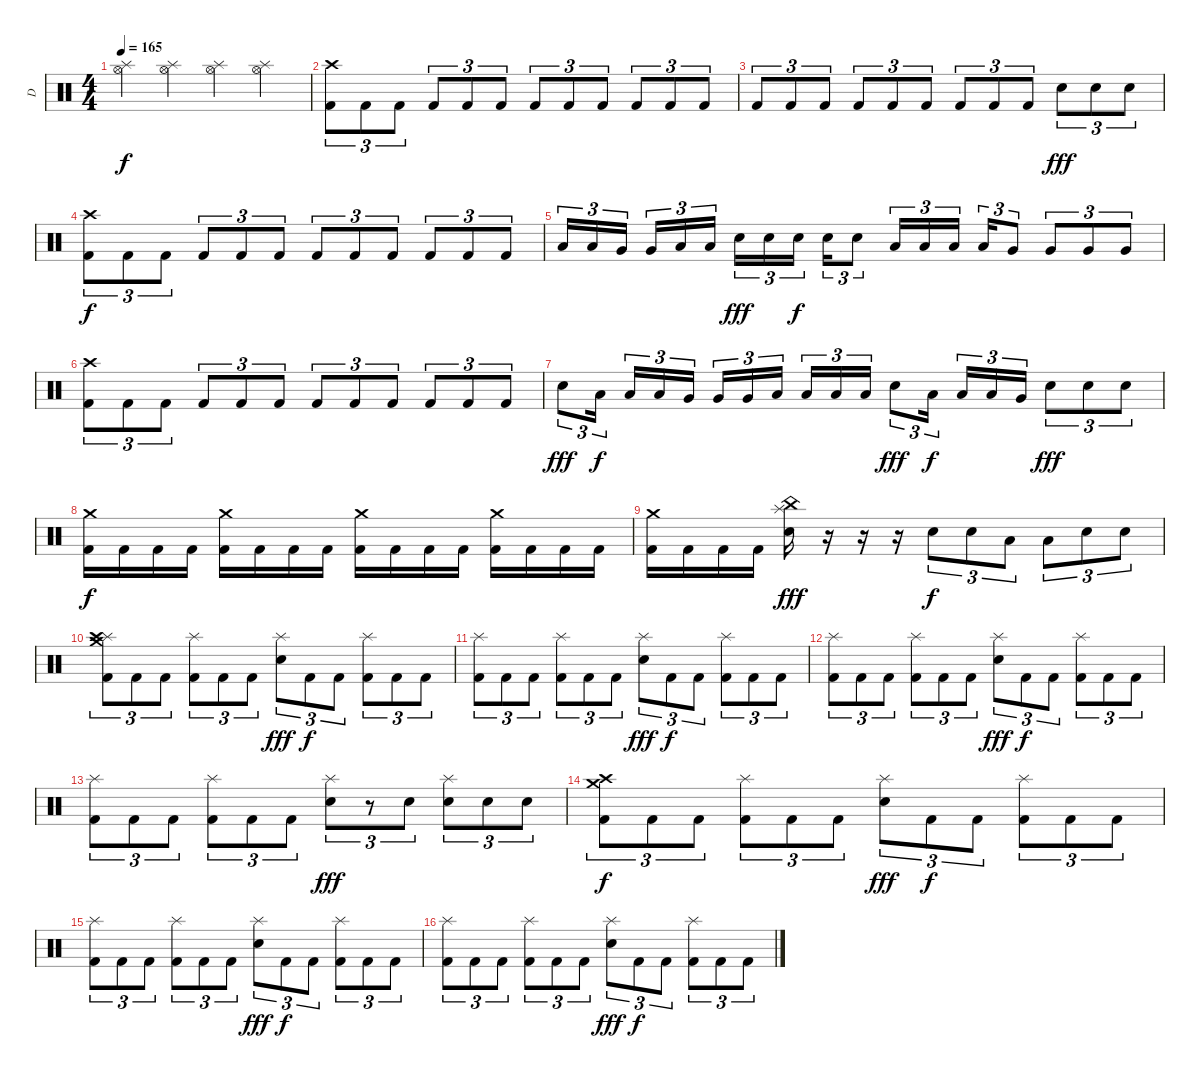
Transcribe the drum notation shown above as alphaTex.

\track ("D" "D") {instrument percussion}
\staff {score}
\articulation defaults
\ts (4 4)
\tempo 165
\clef neutral
\ks c
("Hi-Hat (open)" "Splash (hit)").4{dy f} ("Hi-Hat (open)" "Splash (hit)").4 ("Hi-Hat (open)" "Splash (hit)").4 ("Hi-Hat (open)" "Splash (hit)").4 |
("Crash high (hit)" "Kick (hit) 2").8{tu (3 2)} "Kick (hit) 2".8{tu (3 2)} "Kick (hit) 2".8{tu (3 2)} "Kick (hit) 2".8{tu (3 2)} "Kick (hit) 2".8{tu (3 2)} "Kick (hit) 2".8{tu (3 2)} "Kick (hit) 2".8{tu (3 2)} "Kick (hit) 2".8{tu (3 2)} "Kick (hit) 2".8{tu (3 2)} "Kick (hit) 2".8{tu (3 2)} "Kick (hit) 2".8{tu (3 2)} "Kick (hit) 2".8{tu (3 2)} |
"Kick (hit) 2".8{tu (3 2)} "Kick (hit) 2".8{tu (3 2)} "Kick (hit) 2".8{tu (3 2)} "Kick (hit) 2".8{tu (3 2)} "Kick (hit) 2".8{tu (3 2)} "Kick (hit) 2".8{tu (3 2)} "Kick (hit) 2".8{tu (3 2)} "Kick (hit) 2".8{tu (3 2)} "Kick (hit) 2".8{tu (3 2)} "Electric Snare (hit)".8{tu (3 2) dy fff} "Electric Snare (hit)".8{tu (3 2)} "Electric Snare (hit)".8{tu (3 2)} |
("Crash high (hit)" "Kick (hit) 2").8{tu (3 2) dy f} "Kick (hit) 2".8{tu (3 2)} "Kick (hit) 2".8{tu (3 2)} "Kick (hit) 2".8{tu (3 2)} "Kick (hit) 2".8{tu (3 2)} "Kick (hit) 2".8{tu (3 2)} "Kick (hit) 2".8{tu (3 2)} "Kick (hit) 2".8{tu (3 2)} "Kick (hit) 2".8{tu (3 2)} "Kick (hit) 2".8{tu (3 2)} "Kick (hit) 2".8{tu (3 2)} "Kick (hit) 2".8{tu (3 2)} |
"Low Tom (hit)".16{tu (3 2)} "Low Tom (hit)".16{tu (3 2)} "Very Low Tom (hit)".16{tu (3 2)} "Very Low Tom (hit)".16{tu (3 2)} "Low Floor Tom (hit)".16{tu (3 2)} "Low Floor Tom (hit)".16{tu (3 2)} "Electric Snare (hit)".16{tu (3 2) dy fff} "Electric Snare (hit)".16{tu (3 2)} "Electric Snare (hit)".16{tu (3 2) dy f} "Electric Snare (hit)".16{tu (3 2)} "Electric Snare (hit)".8{tu (3 2)} "Low Tom (hit)".16{tu (3 2)} "Low Tom (hit)".16{tu (3 2)} "Low Tom (hit)".16{tu (3 2)} "Low Tom (hit)".16{tu (3 2)} "Very Low Tom (hit)".8{tu (3 2)} "Very Low Tom (hit)".8{tu (3 2)} "Very Low Tom (hit)".8{tu (3 2)} "Very Low Tom (hit)".8{tu (3 2)} |
("Crash high (hit)" "Kick (hit) 2").8{tu (3 2)} "Kick (hit) 2".8{tu (3 2)} "Kick (hit) 2".8{tu (3 2)} "Kick (hit) 2".8{tu (3 2)} "Kick (hit) 2".8{tu (3 2)} "Kick (hit) 2".8{tu (3 2)} "Kick (hit) 2".8{tu (3 2)} "Kick (hit) 2".8{tu (3 2)} "Kick (hit) 2".8{tu (3 2)} "Kick (hit) 2".8{tu (3 2)} "Kick (hit) 2".8{tu (3 2)} "Kick (hit) 2".8{tu (3 2)} |
"Electric Snare (hit)".8{tu (3 2) dy fff} "Low Tom (hit)".16{tu (3 2) dy f} "Low Tom (hit)".16{tu (3 2)} "Low Tom (hit)".16{tu (3 2)} "Very Low Tom (hit)".16{tu (3 2)} "Very Low Tom (hit)".16{tu (3 2)} "Very Low Tom (hit)".16{tu (3 2)} "Low Floor Tom (hit)".16{tu (3 2)} "Low Floor Tom (hit)".16{tu (3 2)} "Low Floor Tom (hit)".16{tu (3 2)} "Low Floor Tom (hit)".16{tu (3 2)} "Electric Snare (hit)".8{tu (3 2) dy fff} "Low Tom (hit)".16{tu (3 2) dy f} "Low Tom (hit)".16{tu (3 2)} "Low Tom (hit)".16{tu (3 2)} "Very Low Tom (hit)".16{tu (3 2)} "Electric Snare (hit)".8{tu (3 2) dy fff} "Electric Snare (hit)".8{tu (3 2)} "Electric Snare (hit)".8{tu (3 2)} |
("Crash medium (hit)" "Kick (hit) 2").16{dy f} "Kick (hit) 2".16 "Kick (hit) 2".16 "Kick (hit) 2".16 ("Crash medium (hit)" "Kick (hit) 2").16 "Kick (hit) 2".16 "Kick (hit) 2".16 "Kick (hit) 2".16 ("Crash medium (hit)" "Kick (hit) 2").16 "Kick (hit) 2".16 "Kick (hit) 2".16 "Kick (hit) 2".16 ("Crash medium (hit)" "Kick (hit) 2").16 "Kick (hit) 2".16 "Kick (hit) 2".16 "Kick (hit) 2".16 |
("Crash medium (hit)" "Kick (hit) 2").16 "Kick (hit) 2".16 "Kick (hit) 2".16 "Kick (hit) 2".16 ("Splash (hit)" "China (hit)" "Electric Snare (hit)").16{dy fff} r.16 r.16 r.16 "Electric Snare (hit)".8{tu (3 2) dy f} "Electric Snare (hit)".8{tu (3 2)} "Low Tom (hit)".8{tu (3 2)} "Low Tom (hit)".8{tu (3 2)} "Electric Snare (hit)".8{tu (3 2)} "Electric Snare (hit)".8{tu (3 2)} |
("Splash (hit)" "Crash medium (hit)" "Crash high (hit)" "Kick (hit) 2").8{tu (3 2)} "Kick (hit) 2".8{tu (3 2)} "Kick (hit) 2".8{tu (3 2)} ("Splash (hit)" "Kick (hit) 2").8{tu (3 2)} "Kick (hit) 2".8{tu (3 2)} "Kick (hit) 2".8{tu (3 2)} ("Splash (hit)" "Electric Snare (hit)").8{tu (3 2) dy fff} "Kick (hit) 2".8{tu (3 2) dy f} "Kick (hit) 2".8{tu (3 2)} ("Splash (hit)" "Kick (hit) 2").8{tu (3 2)} "Kick (hit) 2".8{tu (3 2)} "Kick (hit) 2".8{tu (3 2)} |
("Splash (hit)" "Kick (hit) 2").8{tu (3 2)} "Kick (hit) 2".8{tu (3 2)} "Kick (hit) 2".8{tu (3 2)} ("Splash (hit)" "Kick (hit) 2").8{tu (3 2)} "Kick (hit) 2".8{tu (3 2)} "Kick (hit) 2".8{tu (3 2)} ("Splash (hit)" "Electric Snare (hit)").8{tu (3 2) dy fff} "Kick (hit) 2".8{tu (3 2) dy f} "Kick (hit) 2".8{tu (3 2)} ("Splash (hit)" "Kick (hit) 2").8{tu (3 2)} "Kick (hit) 2".8{tu (3 2)} "Kick (hit) 2".8{tu (3 2)} |
("Splash (hit)" "Kick (hit) 2").8{tu (3 2)} "Kick (hit) 2".8{tu (3 2)} "Kick (hit) 2".8{tu (3 2)} ("Splash (hit)" "Kick (hit) 2").8{tu (3 2)} "Kick (hit) 2".8{tu (3 2)} "Kick (hit) 2".8{tu (3 2)} ("Splash (hit)" "Electric Snare (hit)").8{tu (3 2) dy fff} "Kick (hit) 2".8{tu (3 2) dy f} "Kick (hit) 2".8{tu (3 2)} ("Splash (hit)" "Kick (hit) 2").8{tu (3 2)} "Kick (hit) 2".8{tu (3 2)} "Kick (hit) 2".8{tu (3 2)} |
("Splash (hit)" "Kick (hit) 2").8{tu (3 2)} "Kick (hit) 2".8{tu (3 2)} "Kick (hit) 2".8{tu (3 2)} ("Splash (hit)" "Kick (hit) 2").8{tu (3 2)} "Kick (hit) 2".8{tu (3 2)} "Kick (hit) 2".8{tu (3 2)} ("Splash (hit)" "Electric Snare (hit)").8{tu (3 2) dy fff} r.8{tu (3 2)} "Electric Snare (hit)".8{tu (3 2)} ("Splash (hit)" "Electric Snare (hit)").8{tu (3 2)} "Electric Snare (hit)".8{tu (3 2)} "Electric Snare (hit)".8{tu (3 2)} |
("Crash medium (hit)" "Crash high (hit)" "Kick (hit) 2").8{tu (3 2) dy f} "Kick (hit) 2".8{tu (3 2)} "Kick (hit) 2".8{tu (3 2)} ("Splash (hit)" "Kick (hit) 2").8{tu (3 2)} "Kick (hit) 2".8{tu (3 2)} "Kick (hit) 2".8{tu (3 2)} ("Splash (hit)" "Electric Snare (hit)").8{tu (3 2) dy fff} "Kick (hit) 2".8{tu (3 2) dy f} "Kick (hit) 2".8{tu (3 2)} ("Splash (hit)" "Kick (hit) 2").8{tu (3 2)} "Kick (hit) 2".8{tu (3 2)} "Kick (hit) 2".8{tu (3 2)} |
("Splash (hit)" "Kick (hit) 2").8{tu (3 2)} "Kick (hit) 2".8{tu (3 2)} "Kick (hit) 2".8{tu (3 2)} ("Splash (hit)" "Kick (hit) 2").8{tu (3 2)} "Kick (hit) 2".8{tu (3 2)} "Kick (hit) 2".8{tu (3 2)} ("Splash (hit)" "Electric Snare (hit)").8{tu (3 2) dy fff} "Kick (hit) 2".8{tu (3 2) dy f} "Kick (hit) 2".8{tu (3 2)} ("Splash (hit)" "Kick (hit) 2").8{tu (3 2)} "Kick (hit) 2".8{tu (3 2)} "Kick (hit) 2".8{tu (3 2)} |
("Splash (hit)" "Kick (hit) 2").8{tu (3 2)} "Kick (hit) 2".8{tu (3 2)} "Kick (hit) 2".8{tu (3 2)} ("Splash (hit)" "Kick (hit) 2").8{tu (3 2)} "Kick (hit) 2".8{tu (3 2)} "Kick (hit) 2".8{tu (3 2)} ("Splash (hit)" "Electric Snare (hit)").8{tu (3 2) dy fff} "Kick (hit) 2".8{tu (3 2) dy f} "Kick (hit) 2".8{tu (3 2)} ("Splash (hit)" "Kick (hit) 2").8{tu (3 2)} "Kick (hit) 2".8{tu (3 2)} "Kick (hit) 2".8{tu (3 2)}
